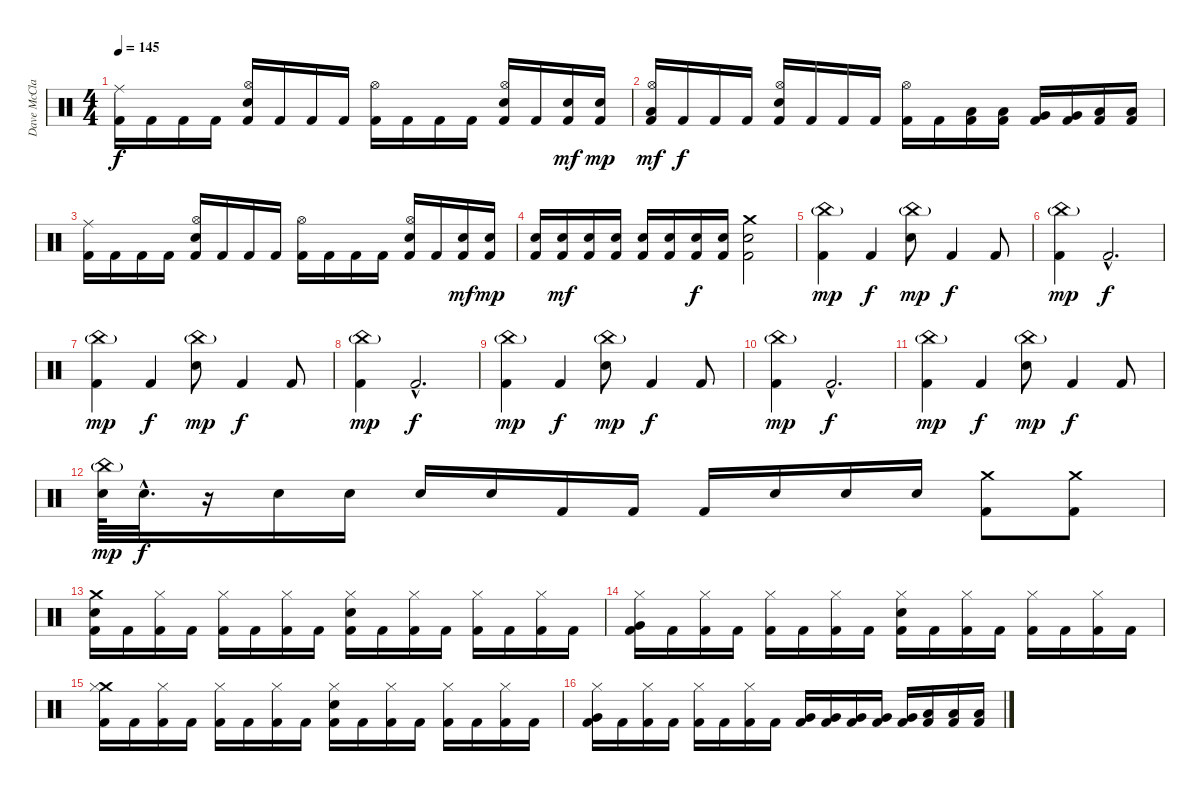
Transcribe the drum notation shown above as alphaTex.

\track ("Dave McClain" "Dave McCla") {instrument percussion}
\staff {score}
\articulation defaults
\ts (4 4)
\tempo 145
\clef neutral
\ks c
("Ride (middle)" "Kick (hit) 2").16{dy f} "Kick (hit) 2".16 "Kick (hit) 2".16 "Kick (hit) 2".16 ("Hi-Hat (open)" "Snare (hit) 2" "Kick (hit) 2").16 "Kick (hit) 2".16 "Kick (hit) 2".16 "Kick (hit) 2".16 ("Hi-Hat (open)" "Kick (hit) 2").16 "Kick (hit) 2".16 "Kick (hit) 2".16 "Kick (hit) 2".16 ("Hi-Hat (open)" "Snare (hit) 2" "Kick (hit) 2").16 "Kick (hit) 2".16 ("Snare (hit) 2" "Kick (hit) 2").16{dy mf} ("Electric Snare (hit)" "Kick (hit) 2").16{dy mp} |
("Hi-Hat (open)" "Low Tom (hit)" "Kick (hit) 2").16{dy mf} "Kick (hit) 2".16{dy f} "Kick (hit) 2".16 "Kick (hit) 2".16 ("Hi-Hat (open)" "Snare (hit) 2" "Kick (hit) 2").16 "Kick (hit) 2".16 "Kick (hit) 2".16 "Kick (hit) 2".16 ("Hi-Hat (open)" "Kick (hit) 2").16 "Kick (hit) 2".16 ("Low Floor Tom (hit)" "Kick (hit) 2").16 ("Low Floor Tom (hit)" "Kick (hit) 2").16 ("Very Low Tom (hit)" "Kick (hit) 2").16 ("Very Low Tom (hit)" "Kick (hit) 2").16 ("Low Floor Tom (hit)" "Kick (hit) 2").16 ("Low Floor Tom (hit)" "Kick (hit) 2").16 |
("Ride (middle)" "Kick (hit) 2").16 "Kick (hit) 2".16 "Kick (hit) 2".16 "Kick (hit) 2".16 ("Hi-Hat (open)" "Snare (hit) 2" "Kick (hit) 2").16 "Kick (hit) 2".16 "Kick (hit) 2".16 "Kick (hit) 2".16 ("Hi-Hat (open)" "Kick (hit) 2").16 "Kick (hit) 2".16 "Kick (hit) 2".16 "Kick (hit) 2".16 ("Hi-Hat (open)" "Snare (hit) 2" "Kick (hit) 2").16 "Kick (hit) 2".16 ("Snare (hit) 2" "Kick (hit) 2").16{dy mf} ("Electric Snare (hit)" "Kick (hit) 2").16{dy mp} |
("Electric Snare (hit)" "Kick (hit) 2").16 ("Electric Snare (hit)" "Kick (hit) 2").16{dy mf} ("Electric Snare (hit)" "Kick (hit) 2").16 ("Snare (hit) 2" "Kick (hit) 2").16 ("Snare (hit) 2" "Kick (hit) 2").16 ("Snare (hit) 2" "Kick (hit) 2").16 ("Snare (hit) 2" "Kick (hit) 2").16{dy f} ("Snare (hit) 2" "Kick (hit) 2").16 ("Crash medium (hit)" "Snare (hit) 2" "Kick (hit) 2").2 |
("China (hit)"{g} "Kick (hit) 2").4{dy mp} "Kick (hit) 2".4{dy f} ("China (hit)"{g} "Snare (hit) 2").8{dy mp} "Kick (hit) 2".4{dy f} "Kick (hit) 2".8 |
("China (hit)"{g} "Kick (hit) 2").4{dy mp} "Kick (hit) 2"{hac}.2{d dy f} |
("China (hit)"{g} "Kick (hit) 2").4{dy mp} "Kick (hit) 2".4{dy f} ("China (hit)"{g} "Snare (hit) 2").8{dy mp} "Kick (hit) 2".4{dy f} "Kick (hit) 2".8 |
("China (hit)"{g} "Kick (hit) 2").4{dy mp} "Kick (hit) 2"{hac}.2{d dy f} |
("China (hit)"{g} "Kick (hit) 2").4{dy mp} "Kick (hit) 2".4{dy f} ("China (hit)"{g} "Snare (hit) 2").8{dy mp} "Kick (hit) 2".4{dy f} "Kick (hit) 2".8 |
("China (hit)"{g} "Kick (hit) 2").4{dy mp} "Kick (hit) 2"{hac}.2{d dy f} |
("China (hit)"{g} "Kick (hit) 2").4{dy mp} "Kick (hit) 2".4{dy f} ("China (hit)"{g} "Snare (hit) 2").8{dy mp} "Kick (hit) 2".4{dy f} "Kick (hit) 2".8 |
("China (hit)"{g} "Snare (hit) 2").64{dy mp} "Snare (hit) 2"{hac}.32{d dy f} r.16 "Electric Snare (hit)".16 "Electric Snare (hit)".16 "Snare (hit) 2".16 "Snare (hit) 2".16 "Kick (hit) 2".16 "Kick (hit) 2".16 "Kick (hit) 2".16 "Electric Snare (hit)".16 "Electric Snare (hit)".16 "Electric Snare (hit)".16 ("Crash medium (hit)" "Kick (hit) 2").8 ("Crash medium (hit)" "Kick (hit) 2").8 |
("Crash medium (hit)" "Snare (hit) 2" "Kick (hit) 2").16 "Kick (hit) 2".16 ("Hi-Hat (closed)" "Kick (hit) 2").16 "Kick (hit) 2".16 ("Hi-Hat (closed)" "Kick (hit) 2").16 "Kick (hit) 2".16 ("Hi-Hat (closed)" "Kick (hit) 2").16 "Kick (hit) 2".16 ("Hi-Hat (closed)" "Snare (hit) 2" "Kick (hit) 2").16 "Kick (hit) 2".16 ("Hi-Hat (closed)" "Kick (hit) 2").16 "Kick (hit) 2".16 ("Hi-Hat (closed)" "Kick (hit) 2").16 "Kick (hit) 2".16 ("Hi-Hat (closed)" "Kick (hit) 2").16 "Kick (hit) 2".16 |
("Hi-Hat (closed)" "Very Low Tom (hit)" "Kick (hit) 2").16 "Kick (hit) 2".16 ("Hi-Hat (closed)" "Kick (hit) 2").16 "Kick (hit) 2".16 ("Hi-Hat (closed)" "Kick (hit) 2").16 "Kick (hit) 2".16 ("Hi-Hat (closed)" "Kick (hit) 2").16 "Kick (hit) 2".16 ("Hi-Hat (closed)" "Snare (hit) 2" "Kick (hit) 2").16 "Kick (hit) 2".16 ("Hi-Hat (closed)" "Kick (hit) 2").16 "Kick (hit) 2".16 ("Hi-Hat (closed)" "Kick (hit) 2").16 "Kick (hit) 2".16 ("Hi-Hat (closed)" "Kick (hit) 2").16 "Kick (hit) 2".16 |
("Crash medium (hit)" "Hi-Hat (closed)" "Kick (hit) 2").16 "Kick (hit) 2".16 ("Hi-Hat (closed)" "Kick (hit) 2").16 "Kick (hit) 2".16 ("Hi-Hat (closed)" "Kick (hit) 2").16 "Kick (hit) 2".16 ("Hi-Hat (closed)" "Kick (hit) 2").16 "Kick (hit) 2".16 ("Hi-Hat (closed)" "Snare (hit) 2" "Kick (hit) 2").16 "Kick (hit) 2".16 ("Hi-Hat (closed)" "Kick (hit) 2").16 "Kick (hit) 2".16 ("Hi-Hat (closed)" "Kick (hit) 2").16 "Kick (hit) 2".16 ("Hi-Hat (closed)" "Kick (hit) 2").16 "Kick (hit) 2".16 |
("Hi-Hat (closed)" "Very Low Tom (hit)" "Kick (hit) 2").16 "Kick (hit) 2".16 ("Hi-Hat (closed)" "Kick (hit) 2").16 "Kick (hit) 2".16 ("Hi-Hat (closed)" "Kick (hit) 2").16 "Kick (hit) 2".16 ("Hi-Hat (closed)" "Kick (hit) 2").16 "Kick (hit) 2".16 ("Very Low Tom (hit)" "Kick (hit) 2").16 ("Very Low Tom (hit)" "Kick (hit) 2").16 ("Very Low Tom (hit)" "Kick (hit) 2").16 ("Very Low Tom (hit)" "Kick (hit) 2").16 ("Very Low Tom (hit)" "Kick (hit) 2").16 ("Low Floor Tom (hit)" "Kick (hit) 2").16 ("Low Floor Tom (hit)" "Kick (hit) 2").16 ("Low Floor Tom (hit)" "Kick (hit) 2").16
